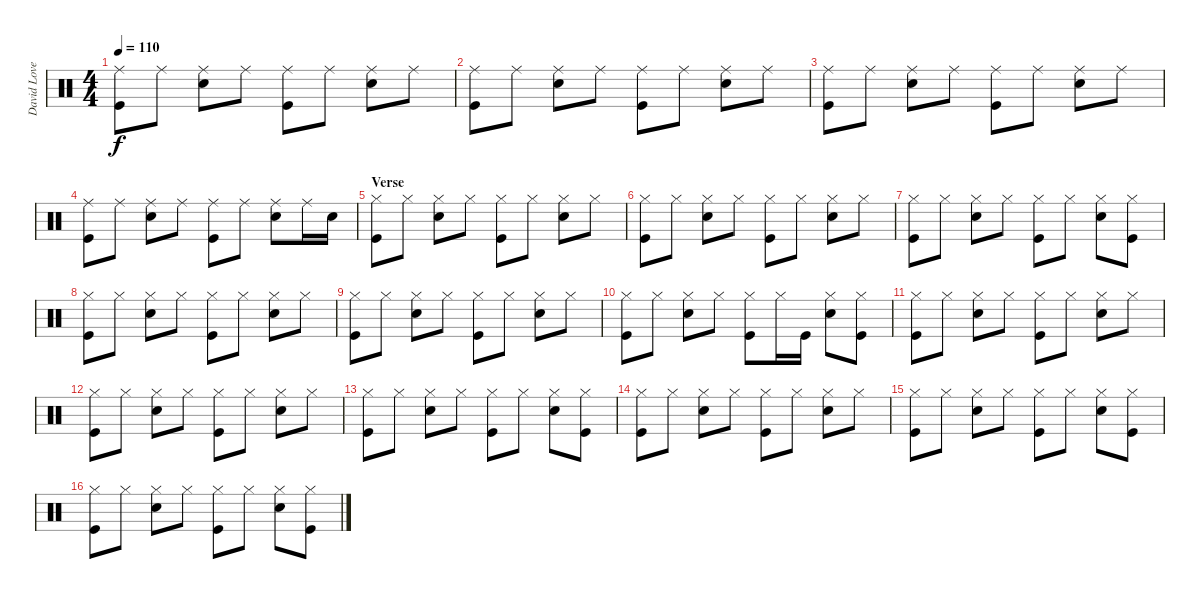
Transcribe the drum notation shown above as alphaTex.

\track ("David Lovering" "David Love") {instrument percussion}
\staff {score}
\articulation defaults
\ts (4 4)
\tempo 110
\clef neutral
\ks c
("Ride (middle)" "Kick (hit)").8{dy f} "Ride (middle)".8 ("Ride (middle)" "Snare (hit) 2").8 "Ride (middle)".8 ("Ride (middle)" "Kick (hit)").8 "Ride (middle)".8 ("Ride (middle)" "Snare (hit) 2").8 "Ride (middle)".8 |
("Ride (middle)" "Kick (hit)").8 "Ride (middle)".8 ("Ride (middle)" "Snare (hit) 2").8 "Ride (middle)".8 ("Ride (middle)" "Kick (hit)").8 "Ride (middle)".8 ("Ride (middle)" "Snare (hit) 2").8 "Ride (middle)".8 |
("Ride (middle)" "Kick (hit)").8 "Ride (middle)".8 ("Ride (middle)" "Snare (hit) 2").8 "Ride (middle)".8 ("Ride (middle)" "Kick (hit)").8 "Ride (middle)".8 ("Ride (middle)" "Snare (hit) 2").8 "Ride (middle)".8 |
("Ride (middle)" "Kick (hit)").8 "Ride (middle)".8 ("Ride (middle)" "Snare (hit) 2").8 "Ride (middle)".8 ("Ride (middle)" "Kick (hit)").8 "Ride (middle)".8 ("Ride (middle)" "Snare (hit) 2").8 "Ride (middle)".16 "Snare (hit) 2".16 |
\section ("" "Verse")
("Hi-Hat (closed)" "Kick (hit)").8 "Hi-Hat (closed)".8 ("Hi-Hat (closed)" "Snare (hit) 2").8 "Hi-Hat (closed)".8 ("Hi-Hat (closed)" "Kick (hit)").8 "Hi-Hat (closed)".8 ("Hi-Hat (closed)" "Snare (hit) 2").8 "Hi-Hat (closed)".8 |
("Hi-Hat (closed)" "Kick (hit)").8 "Hi-Hat (closed)".8 ("Hi-Hat (closed)" "Snare (hit) 2").8 "Hi-Hat (closed)".8 ("Hi-Hat (closed)" "Kick (hit)").8 "Hi-Hat (closed)".8 ("Hi-Hat (closed)" "Snare (hit) 2").8 "Hi-Hat (closed)".8 |
("Hi-Hat (closed)" "Kick (hit)").8 "Hi-Hat (closed)".8 ("Hi-Hat (closed)" "Snare (hit) 2").8 "Hi-Hat (closed)".8 ("Hi-Hat (closed)" "Kick (hit)").8 "Hi-Hat (closed)".8 ("Hi-Hat (closed)" "Snare (hit) 2").8 ("Hi-Hat (closed)" "Kick (hit)").8 |
("Hi-Hat (closed)" "Kick (hit)").8 "Hi-Hat (closed)".8 ("Hi-Hat (closed)" "Snare (hit) 2").8 "Hi-Hat (closed)".8 ("Hi-Hat (closed)" "Kick (hit)").8 "Hi-Hat (closed)".8 ("Hi-Hat (closed)" "Snare (hit) 2").8 "Hi-Hat (closed)".8 |
("Hi-Hat (closed)" "Kick (hit)").8 "Hi-Hat (closed)".8 ("Hi-Hat (closed)" "Snare (hit) 2").8 "Hi-Hat (closed)".8 ("Hi-Hat (closed)" "Kick (hit)").8 "Hi-Hat (closed)".8 ("Hi-Hat (closed)" "Snare (hit) 2").8 "Hi-Hat (closed)".8 |
("Hi-Hat (closed)" "Kick (hit)").8 "Hi-Hat (closed)".8 ("Hi-Hat (closed)" "Snare (hit) 2").8 "Hi-Hat (closed)".8 ("Hi-Hat (closed)" "Kick (hit)").8 "Hi-Hat (closed)".16 "Kick (hit)".16 ("Hi-Hat (closed)" "Snare (hit) 2").8 ("Hi-Hat (closed)" "Kick (hit)").8 |
("Hi-Hat (closed)" "Kick (hit)").8 "Hi-Hat (closed)".8 ("Hi-Hat (closed)" "Snare (hit) 2").8 "Hi-Hat (closed)".8 ("Hi-Hat (closed)" "Kick (hit)").8 "Hi-Hat (closed)".8 ("Hi-Hat (closed)" "Snare (hit) 2").8 "Hi-Hat (closed)".8 |
("Hi-Hat (closed)" "Kick (hit)").8 "Hi-Hat (closed)".8 ("Hi-Hat (closed)" "Snare (hit) 2").8 "Hi-Hat (closed)".8 ("Hi-Hat (closed)" "Kick (hit)").8 "Hi-Hat (closed)".8 ("Hi-Hat (closed)" "Snare (hit) 2").8 "Hi-Hat (closed)".8 |
("Hi-Hat (closed)" "Kick (hit)").8 "Hi-Hat (closed)".8 ("Hi-Hat (closed)" "Snare (hit) 2").8 "Hi-Hat (closed)".8 ("Hi-Hat (closed)" "Kick (hit)").8 "Hi-Hat (closed)".8 ("Hi-Hat (closed)" "Snare (hit) 2").8 ("Hi-Hat (closed)" "Kick (hit)").8 |
("Hi-Hat (closed)" "Kick (hit)").8 "Hi-Hat (closed)".8 ("Hi-Hat (closed)" "Snare (hit) 2").8 "Hi-Hat (closed)".8 ("Hi-Hat (closed)" "Kick (hit)").8 "Hi-Hat (closed)".8 ("Hi-Hat (closed)" "Snare (hit) 2").8 "Hi-Hat (closed)".8 |
("Hi-Hat (closed)" "Kick (hit)").8 "Hi-Hat (closed)".8 ("Hi-Hat (closed)" "Snare (hit) 2").8 "Hi-Hat (closed)".8 ("Hi-Hat (closed)" "Kick (hit)").8 "Hi-Hat (closed)".8 ("Hi-Hat (closed)" "Snare (hit) 2").8 ("Hi-Hat (closed)" "Kick (hit)").8 |
("Hi-Hat (closed)" "Kick (hit)").8 "Hi-Hat (closed)".8 ("Hi-Hat (closed)" "Snare (hit) 2").8 "Hi-Hat (closed)".8 ("Hi-Hat (closed)" "Kick (hit)").8 "Hi-Hat (closed)".8 ("Hi-Hat (closed)" "Snare (hit) 2").8 ("Hi-Hat (closed)" "Kick (hit)").8
